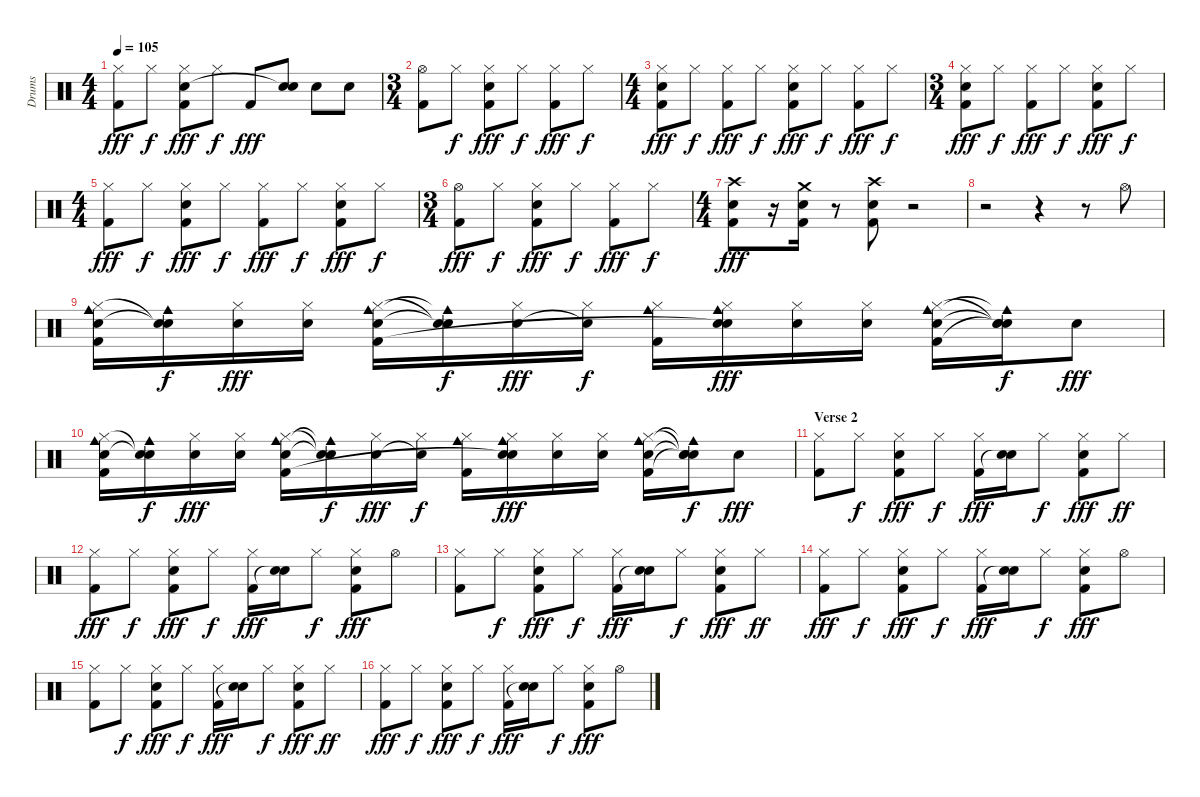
\track ("Drums" "Drums") {instrument percussion}
\staff {score}
\articulation defaults
\ts (4 4)
\tempo 105
\clef neutral
\ks c
("Hi-Hat (closed)" "Kick (hit) 2").8{dy fff} "Hi-Hat (closed)".8{dy f} ("Hi-Hat (closed)" "Electric Snare (hit)" "Kick (hit) 2").8{dy fff} "Hi-Hat (closed)".8{dy f} "Kick (hit) 2".8{dy fff} ("Electric Snare (hit)" "Snare (hit)"{t}).8 "Electric Snare (hit)".8 "Electric Snare (hit)".8 |
\ts (3 4)
("Hi-Hat (open)" "Kick (hit) 2").8 "Hi-Hat (closed)".8{dy f} ("Hi-Hat (closed)" "Electric Snare (hit)" "Kick (hit) 2").8{dy fff} "Hi-Hat (closed)".8{dy f} ("Hi-Hat (closed)" "Kick (hit) 2").8{dy fff} "Hi-Hat (closed)".8{dy f} |
\ts (4 4)
("Hi-Hat (closed)" "Electric Snare (hit)" "Kick (hit) 2").8{dy fff} "Hi-Hat (closed)".8{dy f} ("Hi-Hat (closed)" "Kick (hit) 2").8{dy fff} "Hi-Hat (closed)".8{dy f} ("Hi-Hat (closed)" "Electric Snare (hit)" "Kick (hit) 2").8{dy fff} "Hi-Hat (closed)".8{dy f} ("Hi-Hat (closed)" "Kick (hit) 2").8{dy fff} "Hi-Hat (closed)".8{dy f} |
\ts (3 4)
("Hi-Hat (closed)" "Electric Snare (hit)" "Kick (hit) 2").8{dy fff} "Hi-Hat (closed)".8{dy f} ("Hi-Hat (closed)" "Kick (hit) 2").8{dy fff} "Hi-Hat (closed)".8{dy f} ("Hi-Hat (closed)" "Electric Snare (hit)" "Kick (hit) 2").8{dy fff} "Hi-Hat (closed)".8{dy f} |
\ts (4 4)
("Hi-Hat (closed)" "Kick (hit) 2").8{dy fff} "Hi-Hat (closed)".8{dy f} ("Hi-Hat (closed)" "Electric Snare (hit)" "Kick (hit) 2").8{dy fff} "Hi-Hat (closed)".8{dy f} ("Hi-Hat (closed)" "Kick (hit) 2").8{dy fff} "Hi-Hat (closed)".8{dy f} ("Hi-Hat (closed)" "Electric Snare (hit)" "Kick (hit) 2").8{dy fff} "Hi-Hat (closed)".8{dy f} |
\ts (3 4)
("Hi-Hat (open)" "Kick (hit) 2").8{dy fff} "Hi-Hat (closed)".8{dy f} ("Hi-Hat (closed)" "Electric Snare (hit)" "Kick (hit) 2").8{dy fff} "Hi-Hat (closed)".8{dy f} ("Hi-Hat (closed)" "Kick (hit) 2").8{dy fff} "Hi-Hat (closed)".8{dy f} |
\ts (4 4)
("Crash high (hit)" "Electric Snare (hit)" "Kick (hit) 2").8{dy fff} r.16 ("Crash medium (hit)" "Electric Snare (hit)" "Kick (hit) 2").16 r.8 ("Crash high (hit)" "Electric Snare (hit)" "Kick (hit) 2").8 r.2 |
r.2 r.4 r.8 "Hi-Hat (open)".8 |
("Cowbell medium (hit)" "Hi-Hat (closed)" "Hand Clap (hit)" "Kick (hit) 2").16 ("Cowbell medium (hit)" "Snare (hit)"{t} "Snare (hit)"{t}).16{dy f} ("Hi-Hat (closed)" "Hand Clap (hit)").16{dy fff} ("Hi-Hat (closed)" "Hand Clap (hit)").16 ("Cowbell medium (hit)" "Hi-Hat (closed)" "Hand Clap (hit)" "Kick (hit) 2").16 ("Cowbell medium (hit)"{t} "Snare (hit)"{t} "Snare (hit)"{t}).16{dy f} ("Hi-Hat (closed)" "Hand Clap (hit)").16{dy fff} ("Hi-Hat (closed)" "Hand Clap (hit)"{t}).16{dy f} ("Cowbell medium (hit)" "Hi-Hat (closed)" "Kick (hit) 2").16 ("Cowbell medium (hit)" "Hi-Hat (closed)" "Hand Clap (hit)" "Snare (hit)"{t}).16{dy fff} ("Hi-Hat (closed)" "Hand Clap (hit)").16 ("Hi-Hat (closed)" "Hand Clap (hit)").16 ("Cowbell medium (hit)" "Hi-Hat (closed)" "Hand Clap (hit)" "Kick (hit) 2").16 ("Cowbell medium (hit)"{t} "Snare (hit)"{t} "Snare (hit)"{t} "Snare (hit)"{t}).16{dy f} "Hand Clap (hit)".8{dy fff} |
("Cowbell medium (hit)" "Hi-Hat (closed)" "Hand Clap (hit)" "Kick (hit) 2").16 ("Cowbell medium (hit)" "Snare (hit)"{t} "Snare (hit)"{t}).16{dy f} ("Hi-Hat (closed)" "Hand Clap (hit)").16{dy fff} ("Hi-Hat (closed)" "Hand Clap (hit)").16 ("Cowbell medium (hit)" "Hi-Hat (closed)" "Hand Clap (hit)" "Kick (hit) 2").16 ("Cowbell medium (hit)"{t} "Snare (hit)"{t} "Snare (hit)"{t}).16{dy f} ("Hi-Hat (closed)" "Hand Clap (hit)").16{dy fff} ("Hi-Hat (closed)" "Hand Clap (hit)"{t}).16{dy f} ("Cowbell medium (hit)" "Hi-Hat (closed)" "Kick (hit) 2").16 ("Cowbell medium (hit)" "Hi-Hat (closed)" "Hand Clap (hit)" "Snare (hit)"{t}).16{dy fff} ("Hi-Hat (closed)" "Hand Clap (hit)").16 ("Hi-Hat (closed)" "Hand Clap (hit)").16 ("Cowbell medium (hit)" "Hi-Hat (closed)" "Hand Clap (hit)" "Kick (hit) 2").16 ("Cowbell medium (hit)"{t} "Snare (hit)"{t} "Snare (hit)"{t} "Snare (hit)"{t}).16{dy f} "Hand Clap (hit)".8{dy fff} |
\section ("" "Verse 2")
("Hi-Hat (closed)" "Kick (hit) 2").8 "Hi-Hat (closed)".8{dy f} ("Hi-Hat (closed)" "Electric Snare (hit)" "Kick (hit) 2").8{dy fff} "Hi-Hat (closed)".8{dy f} ("Hi-Hat (closed)" "Kick (hit) 2").16{dy fff} ("Electric Snare (hit)" "Snare (hit)"{t}).16 "Hi-Hat (closed)".8{dy f} ("Hi-Hat (closed)" "Electric Snare (hit)" "Kick (hit) 2").8{dy fff} "Hi-Hat (closed)".8{dy ff} |
("Hi-Hat (closed)" "Kick (hit) 2").8{dy fff} "Hi-Hat (closed)".8{dy f} ("Hi-Hat (closed)" "Electric Snare (hit)" "Kick (hit) 2").8{dy fff} "Hi-Hat (closed)".8{dy f} ("Hi-Hat (closed)" "Kick (hit) 2").16{dy fff} ("Electric Snare (hit)" "Snare (hit)"{t}).16 "Hi-Hat (closed)".8{dy f} ("Hi-Hat (closed)" "Electric Snare (hit)" "Kick (hit) 2").8{dy fff} "Hi-Hat (open)".8 |
("Hi-Hat (closed)" "Kick (hit) 2").8 "Hi-Hat (closed)".8{dy f} ("Hi-Hat (closed)" "Electric Snare (hit)" "Kick (hit) 2").8{dy fff} "Hi-Hat (closed)".8{dy f} ("Hi-Hat (closed)" "Kick (hit) 2").16{dy fff} ("Electric Snare (hit)" "Snare (hit)"{t}).16 "Hi-Hat (closed)".8{dy f} ("Hi-Hat (closed)" "Electric Snare (hit)" "Kick (hit) 2").8{dy fff} "Hi-Hat (closed)".8{dy ff} |
("Hi-Hat (closed)" "Kick (hit) 2").8{dy fff} "Hi-Hat (closed)".8{dy f} ("Hi-Hat (closed)" "Electric Snare (hit)" "Kick (hit) 2").8{dy fff} "Hi-Hat (closed)".8{dy f} ("Hi-Hat (closed)" "Kick (hit) 2").16{dy fff} ("Electric Snare (hit)" "Snare (hit)"{t}).16 "Hi-Hat (closed)".8{dy f} ("Hi-Hat (closed)" "Electric Snare (hit)" "Kick (hit) 2").8{dy fff} "Hi-Hat (open)".8 |
("Hi-Hat (closed)" "Kick (hit) 2").8 "Hi-Hat (closed)".8{dy f} ("Hi-Hat (closed)" "Electric Snare (hit)" "Kick (hit) 2").8{dy fff} "Hi-Hat (closed)".8{dy f} ("Hi-Hat (closed)" "Kick (hit) 2").16{dy fff} ("Electric Snare (hit)" "Snare (hit)"{t}).16 "Hi-Hat (closed)".8{dy f} ("Hi-Hat (closed)" "Electric Snare (hit)" "Kick (hit) 2").8{dy fff} "Hi-Hat (closed)".8{dy ff} |
("Hi-Hat (closed)" "Kick (hit) 2").8{dy fff} "Hi-Hat (closed)".8{dy f} ("Hi-Hat (closed)" "Electric Snare (hit)" "Kick (hit) 2").8{dy fff} "Hi-Hat (closed)".8{dy f} ("Hi-Hat (closed)" "Kick (hit) 2").16{dy fff} ("Electric Snare (hit)" "Snare (hit)"{t}).16 "Hi-Hat (closed)".8{dy f} ("Hi-Hat (closed)" "Electric Snare (hit)" "Kick (hit) 2").8{dy fff} "Hi-Hat (open)".8
